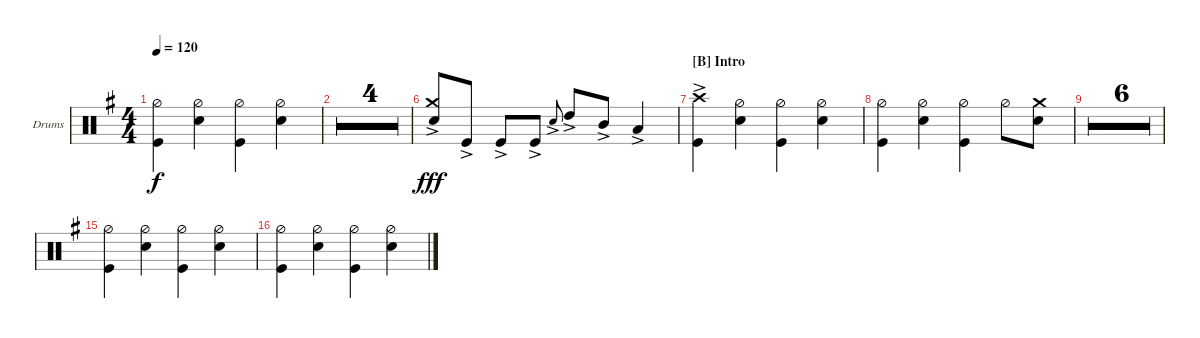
\defaultSystemsLayout 4
\bracketExtendMode groupsimilarinstruments
\firstSystemTrackNameOrientation horizontal
\otherSystemsTrackNameOrientation horizontal
\track ("Drumkit" "Drums") {multiBarRest instrument percussion}
\staff {score}
\articulation defaults
\ts (4 4)
\tempo 120
\clef neutral
\ks g
("Kick (hit)" "Hi-Hat (half)").4{dy f} ("Snare (hit) 2" "Hi-Hat (half)").4 ("Kick (hit)" "Hi-Hat (half)").4 ("Snare (hit) 2" "Hi-Hat (half)").4 |
\simile firstofdouble
|
\simile secondofdouble
|
\simile firstofdouble
|
\simile secondofdouble
|
\simile none
("Crash medium (hit)"{ac} "Snare (hit) 2"{ac}).8{dy fff beam invert} "Kick (hit)"{ac}.8 "Kick (hit)"{ac}.8 "Kick (hit)"{ac}.8 "Snare (hit) 2"{ac}.8{gr onbeat} "High Tom (hit)"{ac}.8 "Mid Tom (hit)"{ac}.8{beam invert} "Low Tom (hit)"{ac}.4 |
\section ("B" "Intro")
("Kick (hit)" "Crash high (hit)"{ac}).4 ("Hi-Hat (half)" "Snare (hit) 2").4 ("Hi-Hat (half)" "Kick (hit)").4 ("Hi-Hat (half)" "Snare (hit) 2").4 |
("Hi-Hat (half)" "Kick (hit)").4 ("Hi-Hat (half)" "Snare (hit) 2").4 ("Hi-Hat (half)" "Kick (hit)").4 "Hi-Hat (half)".8 ("Snare (hit) 2" "Crash medium (hit)").8 |
\simile firstofdouble
|
\simile secondofdouble
|
\simile firstofdouble
|
\simile secondofdouble
|
\simile firstofdouble
|
\simile secondofdouble
|
\simile none
("Hi-Hat (half)" "Kick (hit)").4 ("Hi-Hat (half)" "Snare (hit) 2").4 ("Hi-Hat (half)" "Kick (hit)").4 ("Hi-Hat (half)" "Snare (hit) 2").4 |
("Hi-Hat (half)" "Kick (hit)").4 ("Hi-Hat (half)" "Snare (hit) 2").4 ("Hi-Hat (half)" "Kick (hit)").4 ("Hi-Hat (half)" "Snare (hit) 2").4
